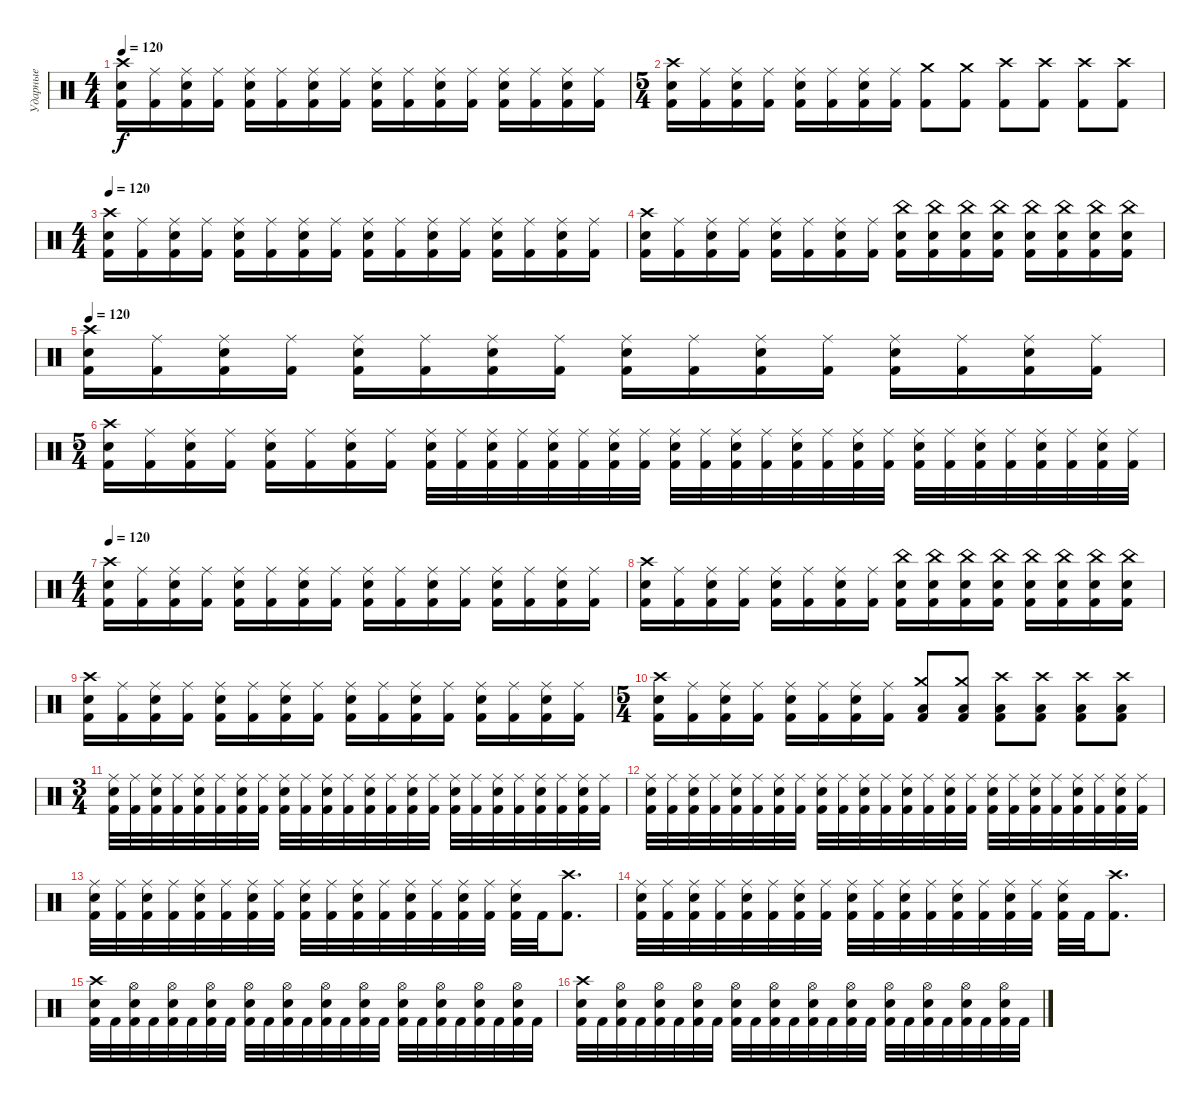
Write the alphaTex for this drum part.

\track ("Ударные" "Ударные") {instrument percussion}
\staff {score}
\articulation defaults
\ts (4 4)
\tempo 120
\clef neutral
\ks c
("Crash high (hit)" "Electric Snare (hit)" "Kick (hit) 2").16{dy f} ("Ride (middle)" "Kick (hit) 2").16 ("Ride (middle)" "Electric Snare (hit)" "Kick (hit) 2").16 ("Ride (middle)" "Kick (hit) 2").16 ("Ride (middle)" "Electric Snare (hit)" "Kick (hit) 2").16 ("Ride (middle)" "Kick (hit) 2").16 ("Ride (middle)" "Electric Snare (hit)" "Kick (hit) 2").16 ("Ride (middle)" "Kick (hit) 2").16 ("Ride (middle)" "Electric Snare (hit)" "Kick (hit) 2").16 ("Ride (middle)" "Kick (hit) 2").16 ("Ride (middle)" "Electric Snare (hit)" "Kick (hit) 2").16 ("Ride (middle)" "Kick (hit) 2").16 ("Ride (middle)" "Electric Snare (hit)" "Kick (hit) 2").16 ("Ride (middle)" "Kick (hit) 2").16 ("Ride (middle)" "Electric Snare (hit)" "Kick (hit) 2").16 ("Ride (middle)" "Kick (hit) 2").16 |
\ts (5 4)
("Crash high (hit)" "Electric Snare (hit)" "Kick (hit) 2").16 ("Ride (middle)" "Kick (hit) 2").16 ("Ride (middle)" "Electric Snare (hit)" "Kick (hit) 2").16 ("Ride (middle)" "Kick (hit) 2").16 ("Ride (middle)" "Electric Snare (hit)" "Kick (hit) 2").16 ("Ride (middle)" "Kick (hit) 2").16 ("Ride (middle)" "Electric Snare (hit)" "Kick (hit) 2").16 ("Ride (middle)" "Kick (hit) 2").16 ("Crash medium (hit)" "Kick (hit) 2").8 ("Crash medium (hit)" "Kick (hit) 2").8 ("Crash high (hit)" "Kick (hit) 2").8 ("Crash high (hit)" "Kick (hit) 2").8 ("Crash high (hit)" "Kick (hit) 2").8 ("Crash high (hit)" "Kick (hit) 2").8 |
\ts (4 4)
\tempo 120
("Crash high (hit)" "Electric Snare (hit)" "Kick (hit) 2").16 ("Ride (middle)" "Kick (hit) 2").16 ("Ride (middle)" "Electric Snare (hit)" "Kick (hit) 2").16 ("Ride (middle)" "Kick (hit) 2").16 ("Ride (middle)" "Electric Snare (hit)" "Kick (hit) 2").16 ("Ride (middle)" "Kick (hit) 2").16 ("Ride (middle)" "Electric Snare (hit)" "Kick (hit) 2").16 ("Ride (middle)" "Kick (hit) 2").16 ("Ride (middle)" "Electric Snare (hit)" "Kick (hit) 2").16 ("Ride (middle)" "Kick (hit) 2").16 ("Ride (middle)" "Electric Snare (hit)" "Kick (hit) 2").16 ("Ride (middle)" "Kick (hit) 2").16 ("Ride (middle)" "Electric Snare (hit)" "Kick (hit) 2").16 ("Ride (middle)" "Kick (hit) 2").16 ("Ride (middle)" "Electric Snare (hit)" "Kick (hit) 2").16 ("Ride (middle)" "Kick (hit) 2").16 |
("Crash high (hit)" "Electric Snare (hit)" "Kick (hit) 2").16 ("Ride (middle)" "Kick (hit) 2").16 ("Ride (middle)" "Electric Snare (hit)" "Kick (hit) 2").16 ("Ride (middle)" "Kick (hit) 2").16 ("Ride (middle)" "Electric Snare (hit)" "Kick (hit) 2").16 ("Ride (middle)" "Kick (hit) 2").16 ("Ride (middle)" "Electric Snare (hit)" "Kick (hit) 2").16 ("Ride (middle)" "Kick (hit) 2").16 ("China (hit)" "Electric Snare (hit)" "Kick (hit) 2").16 ("China (hit)" "Electric Snare (hit)" "Kick (hit) 2").16 ("China (hit)" "Electric Snare (hit)" "Kick (hit) 2").16 ("China (hit)" "Electric Snare (hit)" "Kick (hit) 2").16 ("China (hit)" "Electric Snare (hit)" "Kick (hit) 2").16 ("China (hit)" "Electric Snare (hit)" "Kick (hit) 2").16 ("China (hit)" "Electric Snare (hit)" "Kick (hit) 2").16 ("China (hit)" "Electric Snare (hit)" "Kick (hit) 2").16 |
\tempo 120
("Crash high (hit)" "Electric Snare (hit)" "Kick (hit) 2").16 ("Ride (middle)" "Kick (hit) 2").16 ("Ride (middle)" "Electric Snare (hit)" "Kick (hit) 2").16 ("Ride (middle)" "Kick (hit) 2").16 ("Ride (middle)" "Electric Snare (hit)" "Kick (hit) 2").16 ("Ride (middle)" "Kick (hit) 2").16 ("Ride (middle)" "Electric Snare (hit)" "Kick (hit) 2").16 ("Ride (middle)" "Kick (hit) 2").16 ("Ride (middle)" "Electric Snare (hit)" "Kick (hit) 2").16 ("Ride (middle)" "Kick (hit) 2").16 ("Ride (middle)" "Electric Snare (hit)" "Kick (hit) 2").16 ("Ride (middle)" "Kick (hit) 2").16 ("Ride (middle)" "Electric Snare (hit)" "Kick (hit) 2").16 ("Ride (middle)" "Kick (hit) 2").16 ("Ride (middle)" "Electric Snare (hit)" "Kick (hit) 2").16 ("Ride (middle)" "Kick (hit) 2").16 |
\ts (5 4)
("Crash high (hit)" "Electric Snare (hit)" "Kick (hit) 2").16 ("Ride (middle)" "Kick (hit) 2").16 ("Ride (middle)" "Electric Snare (hit)" "Kick (hit) 2").16 ("Ride (middle)" "Kick (hit) 2").16 ("Ride (middle)" "Electric Snare (hit)" "Kick (hit) 2").16 ("Ride (middle)" "Kick (hit) 2").16 ("Ride (middle)" "Electric Snare (hit)" "Kick (hit) 2").16 ("Ride (middle)" "Kick (hit) 2").16 ("Ride (middle)" "Electric Snare (hit)" "Kick (hit) 2").32 ("Ride (middle)" "Kick (hit) 2").32 ("Ride (middle)" "Electric Snare (hit)" "Kick (hit) 2").32 ("Ride (middle)" "Kick (hit) 2").32 ("Ride (middle)" "Electric Snare (hit)" "Kick (hit) 2").32 ("Ride (middle)" "Kick (hit) 2").32 ("Ride (middle)" "Electric Snare (hit)" "Kick (hit) 2").32 ("Ride (middle)" "Kick (hit) 2").32 ("Ride (middle)" "Electric Snare (hit)" "Kick (hit) 2").32 ("Ride (middle)" "Kick (hit) 2").32 ("Ride (middle)" "Electric Snare (hit)" "Kick (hit) 2").32 ("Ride (middle)" "Kick (hit) 2").32 ("Ride (middle)" "Electric Snare (hit)" "Kick (hit) 2").32 ("Ride (middle)" "Kick (hit) 2").32 ("Ride (middle)" "Electric Snare (hit)" "Kick (hit) 2").32 ("Ride (middle)" "Kick (hit) 2").32 ("Ride (middle)" "Electric Snare (hit)" "Kick (hit) 2").32 ("Ride (middle)" "Kick (hit) 2").32 ("Ride (middle)" "Electric Snare (hit)" "Kick (hit) 2").32 ("Ride (middle)" "Kick (hit) 2").32 ("Ride (middle)" "Electric Snare (hit)" "Kick (hit) 2").32 ("Ride (middle)" "Kick (hit) 2").32 ("Ride (middle)" "Electric Snare (hit)" "Kick (hit) 2").32 ("Ride (middle)" "Kick (hit) 2").32 |
\ts (4 4)
\tempo 120
("Crash high (hit)" "Electric Snare (hit)" "Kick (hit) 2").16 ("Ride (middle)" "Kick (hit) 2").16 ("Ride (middle)" "Electric Snare (hit)" "Kick (hit) 2").16 ("Ride (middle)" "Kick (hit) 2").16 ("Ride (middle)" "Electric Snare (hit)" "Kick (hit) 2").16 ("Ride (middle)" "Kick (hit) 2").16 ("Ride (middle)" "Electric Snare (hit)" "Kick (hit) 2").16 ("Ride (middle)" "Kick (hit) 2").16 ("Ride (middle)" "Electric Snare (hit)" "Kick (hit) 2").16 ("Ride (middle)" "Kick (hit) 2").16 ("Ride (middle)" "Electric Snare (hit)" "Kick (hit) 2").16 ("Ride (middle)" "Kick (hit) 2").16 ("Ride (middle)" "Electric Snare (hit)" "Kick (hit) 2").16 ("Ride (middle)" "Kick (hit) 2").16 ("Ride (middle)" "Electric Snare (hit)" "Kick (hit) 2").16 ("Ride (middle)" "Kick (hit) 2").16 |
("Crash high (hit)" "Electric Snare (hit)" "Kick (hit) 2").16 ("Ride (middle)" "Kick (hit) 2").16 ("Ride (middle)" "Electric Snare (hit)" "Kick (hit) 2").16 ("Ride (middle)" "Kick (hit) 2").16 ("Ride (middle)" "Electric Snare (hit)" "Kick (hit) 2").16 ("Ride (middle)" "Kick (hit) 2").16 ("Ride (middle)" "Electric Snare (hit)" "Kick (hit) 2").16 ("Ride (middle)" "Kick (hit) 2").16 ("China (hit)" "Electric Snare (hit)" "Kick (hit) 2").16 ("China (hit)" "Electric Snare (hit)" "Kick (hit) 2").16 ("China (hit)" "Electric Snare (hit)" "Kick (hit) 2").16 ("China (hit)" "Electric Snare (hit)" "Kick (hit) 2").16 ("China (hit)" "Electric Snare (hit)" "Kick (hit) 2").16 ("China (hit)" "Electric Snare (hit)" "Kick (hit) 2").16 ("China (hit)" "Electric Snare (hit)" "Kick (hit) 2").16 ("China (hit)" "Electric Snare (hit)" "Kick (hit) 2").16 |
("Crash high (hit)" "Electric Snare (hit)" "Kick (hit) 2").16 ("Ride (middle)" "Kick (hit) 2").16 ("Ride (middle)" "Electric Snare (hit)" "Kick (hit) 2").16 ("Ride (middle)" "Kick (hit) 2").16 ("Ride (middle)" "Electric Snare (hit)" "Kick (hit) 2").16 ("Ride (middle)" "Kick (hit) 2").16 ("Ride (middle)" "Electric Snare (hit)" "Kick (hit) 2").16 ("Ride (middle)" "Kick (hit) 2").16 ("Ride (middle)" "Electric Snare (hit)" "Kick (hit) 2").16 ("Ride (middle)" "Kick (hit) 2").16 ("Ride (middle)" "Electric Snare (hit)" "Kick (hit) 2").16 ("Ride (middle)" "Kick (hit) 2").16 ("Ride (middle)" "Electric Snare (hit)" "Kick (hit) 2").16 ("Ride (middle)" "Kick (hit) 2").16 ("Ride (middle)" "Electric Snare (hit)" "Kick (hit) 2").16 ("Ride (middle)" "Kick (hit) 2").16 |
\ts (5 4)
("Crash high (hit)" "Electric Snare (hit)" "Kick (hit) 2").16 ("Ride (middle)" "Kick (hit) 2").16 ("Ride (middle)" "Electric Snare (hit)" "Kick (hit) 2").16 ("Ride (middle)" "Kick (hit) 2").16 ("Ride (middle)" "Electric Snare (hit)" "Kick (hit) 2").16 ("Ride (middle)" "Kick (hit) 2").16 ("Ride (middle)" "Electric Snare (hit)" "Kick (hit) 2").16 ("Ride (middle)" "Kick (hit) 2").16 ("Low Tom (hit)" "Crash medium (hit)" "Kick (hit) 2").8 ("Low Tom (hit)" "Crash medium (hit)" "Kick (hit) 2").8 ("Low Tom (hit)" "Crash high (hit)" "Kick (hit) 2").8 ("Low Floor Tom (hit)" "Crash high (hit)" "Kick (hit) 2").8 ("Low Floor Tom (hit)" "Crash high (hit)" "Kick (hit) 2").8 ("Low Floor Tom (hit)" "Crash high (hit)" "Kick (hit) 2").8 |
\ts (3 4)
("Ride (middle)" "Electric Snare (hit)" "Kick (hit) 2").32 ("Ride (middle)" "Kick (hit) 2").32 ("Ride (middle)" "Electric Snare (hit)" "Kick (hit) 2").32 ("Ride (middle)" "Kick (hit) 2").32 ("Ride (middle)" "Electric Snare (hit)" "Kick (hit) 2").32 ("Ride (middle)" "Kick (hit) 2").32 ("Ride (middle)" "Electric Snare (hit)" "Kick (hit) 2").32 ("Ride (middle)" "Kick (hit) 2").32 ("Ride (middle)" "Electric Snare (hit)" "Kick (hit) 2").32 ("Ride (middle)" "Kick (hit) 2").32 ("Ride (middle)" "Electric Snare (hit)" "Kick (hit) 2").32 ("Ride (middle)" "Kick (hit) 2").32 ("Ride (middle)" "Electric Snare (hit)" "Kick (hit) 2").32 ("Ride (middle)" "Kick (hit) 2").32 ("Ride (middle)" "Electric Snare (hit)" "Kick (hit) 2").32 ("Ride (middle)" "Kick (hit) 2").32 ("Ride (middle)" "Electric Snare (hit)" "Kick (hit) 2").32 ("Ride (middle)" "Kick (hit) 2").32 ("Ride (middle)" "Electric Snare (hit)" "Kick (hit) 2").32 ("Ride (middle)" "Kick (hit) 2").32 ("Ride (middle)" "Electric Snare (hit)" "Kick (hit) 2").32 ("Ride (middle)" "Kick (hit) 2").32 ("Ride (middle)" "Electric Snare (hit)" "Kick (hit) 2").32 ("Ride (middle)" "Kick (hit) 2").32 |
("Ride (middle)" "Electric Snare (hit)" "Kick (hit) 2").32 ("Ride (middle)" "Kick (hit) 2").32 ("Ride (middle)" "Electric Snare (hit)" "Kick (hit) 2").32 ("Ride (middle)" "Kick (hit) 2").32 ("Ride (middle)" "Electric Snare (hit)" "Kick (hit) 2").32 ("Ride (middle)" "Kick (hit) 2").32 ("Ride (middle)" "Electric Snare (hit)" "Kick (hit) 2").32 ("Ride (middle)" "Kick (hit) 2").32 ("Ride (middle)" "Electric Snare (hit)" "Kick (hit) 2").32 ("Ride (middle)" "Kick (hit) 2").32 ("Ride (middle)" "Electric Snare (hit)" "Kick (hit) 2").32 ("Ride (middle)" "Kick (hit) 2").32 ("Ride (middle)" "Electric Snare (hit)" "Kick (hit) 2").32 ("Ride (middle)" "Kick (hit) 2").32 ("Ride (middle)" "Electric Snare (hit)" "Kick (hit) 2").32 ("Ride (middle)" "Kick (hit) 2").32 ("Ride (middle)" "Electric Snare (hit)" "Kick (hit) 2").32 ("Ride (middle)" "Kick (hit) 2").32 ("Ride (middle)" "Electric Snare (hit)" "Kick (hit) 2").32 ("Ride (middle)" "Kick (hit) 2").32 ("Ride (middle)" "Electric Snare (hit)" "Kick (hit) 2").32 ("Ride (middle)" "Kick (hit) 2").32 ("Ride (middle)" "Electric Snare (hit)" "Kick (hit) 2").32 ("Ride (middle)" "Kick (hit) 2").32 |
("Ride (middle)" "Electric Snare (hit)" "Kick (hit) 2").32 ("Ride (middle)" "Kick (hit) 2").32 ("Ride (middle)" "Electric Snare (hit)" "Kick (hit) 2").32 ("Ride (middle)" "Kick (hit) 2").32 ("Ride (middle)" "Electric Snare (hit)" "Kick (hit) 2").32 ("Ride (middle)" "Kick (hit) 2").32 ("Ride (middle)" "Electric Snare (hit)" "Kick (hit) 2").32 ("Ride (middle)" "Kick (hit) 2").32 ("Ride (middle)" "Electric Snare (hit)" "Kick (hit) 2").32 ("Ride (middle)" "Kick (hit) 2").32 ("Ride (middle)" "Electric Snare (hit)" "Kick (hit) 2").32 ("Ride (middle)" "Kick (hit) 2").32 ("Ride (middle)" "Electric Snare (hit)" "Kick (hit) 2").32 ("Ride (middle)" "Kick (hit) 2").32 ("Ride (middle)" "Electric Snare (hit)" "Kick (hit) 2").32 ("Ride (middle)" "Kick (hit) 2").32 ("Ride (middle)" "Electric Snare (hit)" "Kick (hit) 2").32 "Kick (hit) 2".32 ("Crash high (hit)" "Kick (hit) 2").8{d} |
("Ride (middle)" "Electric Snare (hit)" "Kick (hit) 2").32 ("Ride (middle)" "Kick (hit) 2").32 ("Ride (middle)" "Electric Snare (hit)" "Kick (hit) 2").32 ("Ride (middle)" "Kick (hit) 2").32 ("Ride (middle)" "Electric Snare (hit)" "Kick (hit) 2").32 ("Ride (middle)" "Kick (hit) 2").32 ("Ride (middle)" "Electric Snare (hit)" "Kick (hit) 2").32 ("Ride (middle)" "Kick (hit) 2").32 ("Ride (middle)" "Electric Snare (hit)" "Kick (hit) 2").32 ("Ride (middle)" "Kick (hit) 2").32 ("Ride (middle)" "Electric Snare (hit)" "Kick (hit) 2").32 ("Ride (middle)" "Kick (hit) 2").32 ("Ride (middle)" "Electric Snare (hit)" "Kick (hit) 2").32 ("Ride (middle)" "Kick (hit) 2").32 ("Ride (middle)" "Electric Snare (hit)" "Kick (hit) 2").32 ("Ride (middle)" "Kick (hit) 2").32 ("Ride (middle)" "Electric Snare (hit)" "Kick (hit) 2").32 "Kick (hit) 2".32 ("Crash high (hit)" "Kick (hit) 2").8{d} |
("Crash high (hit)" "Electric Snare (hit)" "Kick (hit) 2").32 "Kick (hit) 2".32 ("Hi-Hat (open)" "Electric Snare (hit)" "Kick (hit) 2").32 "Kick (hit) 2".32 ("Hi-Hat (open)" "Electric Snare (hit)" "Kick (hit) 2").32 "Kick (hit) 2".32 ("Hi-Hat (open)" "Electric Snare (hit)" "Kick (hit) 2").32 "Kick (hit) 2".32 ("Hi-Hat (open)" "Electric Snare (hit)" "Kick (hit) 2").32 "Kick (hit) 2".32 ("Hi-Hat (open)" "Electric Snare (hit)" "Kick (hit) 2").32 "Kick (hit) 2".32 ("Hi-Hat (open)" "Electric Snare (hit)" "Kick (hit) 2").32 "Kick (hit) 2".32 ("Hi-Hat (open)" "Electric Snare (hit)" "Kick (hit) 2").32 "Kick (hit) 2".32 ("Hi-Hat (open)" "Electric Snare (hit)" "Kick (hit) 2").32 "Kick (hit) 2".32 ("Hi-Hat (open)" "Electric Snare (hit)" "Kick (hit) 2").32 "Kick (hit) 2".32 ("Hi-Hat (open)" "Electric Snare (hit)" "Kick (hit) 2").32 "Kick (hit) 2".32 ("Hi-Hat (open)" "Electric Snare (hit)" "Kick (hit) 2").32 "Kick (hit) 2".32 |
("Crash high (hit)" "Electric Snare (hit)" "Kick (hit) 2").32 "Kick (hit) 2".32 ("Hi-Hat (open)" "Electric Snare (hit)" "Kick (hit) 2").32 "Kick (hit) 2".32 ("Hi-Hat (open)" "Electric Snare (hit)" "Kick (hit) 2").32 "Kick (hit) 2".32 ("Hi-Hat (open)" "Electric Snare (hit)" "Kick (hit) 2").32 "Kick (hit) 2".32 ("Hi-Hat (open)" "Electric Snare (hit)" "Kick (hit) 2").32 "Kick (hit) 2".32 ("Hi-Hat (open)" "Electric Snare (hit)" "Kick (hit) 2").32 "Kick (hit) 2".32 ("Hi-Hat (open)" "Electric Snare (hit)" "Kick (hit) 2").32 "Kick (hit) 2".32 ("Hi-Hat (open)" "Electric Snare (hit)" "Kick (hit) 2").32 "Kick (hit) 2".32 ("Hi-Hat (open)" "Electric Snare (hit)" "Kick (hit) 2").32 "Kick (hit) 2".32 ("Hi-Hat (open)" "Electric Snare (hit)" "Kick (hit) 2").32 "Kick (hit) 2".32 ("Hi-Hat (open)" "Electric Snare (hit)" "Kick (hit) 2").32 "Kick (hit) 2".32 ("Hi-Hat (open)" "Electric Snare (hit)" "Kick (hit) 2").32 "Kick (hit) 2".32
